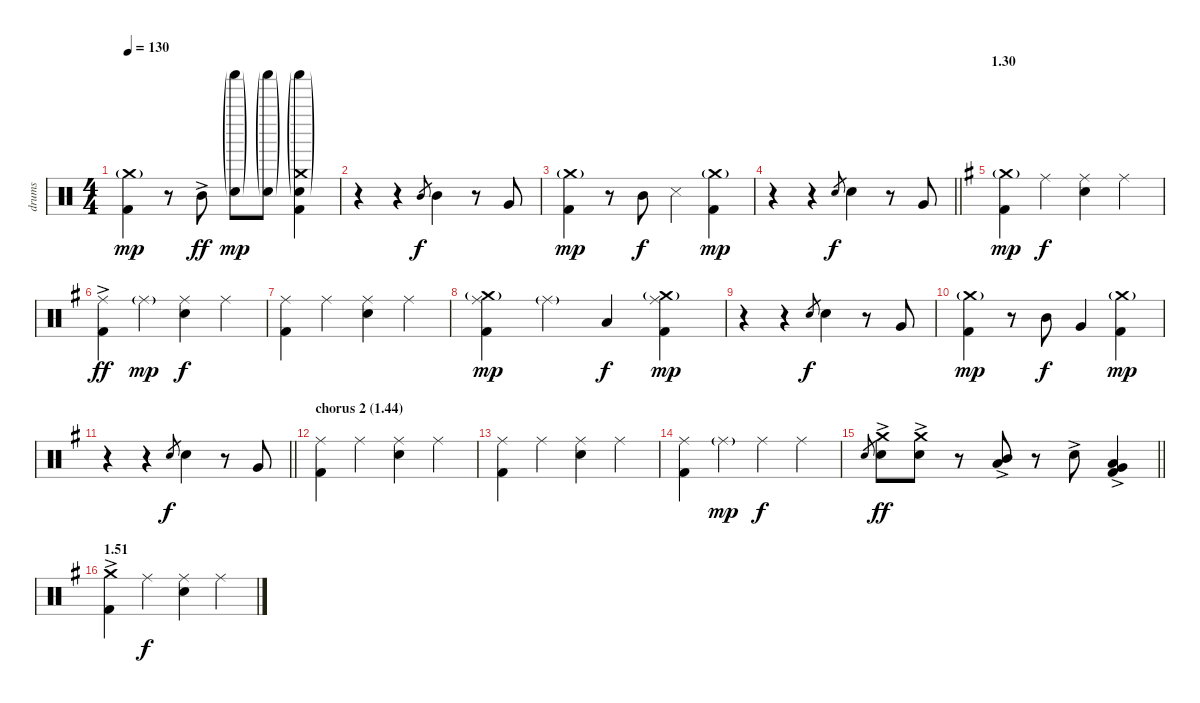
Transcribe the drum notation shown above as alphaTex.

\track ("drums" "drums") {instrument percussion}
\staff {score}
\articulation defaults
\ts (4 4)
\tempo 130
\clef neutral
\ks c
("Crash medium (hit)"{g} "Kick (hit) 2").4{dy mp} r.8 "Mid Tom (hit)"{ac}.8{dy ff} ("Shaker (hit)"{g} "Electric Snare (hit)"{g}).8{dy mp} ("Shaker (hit)"{g} "Electric Snare (hit)"{g}).8 ("Crash medium (hit)"{g} "Shaker (hit)"{g} "Electric Snare (hit)"{g} "Kick (hit) 2").4 |
r.4 r.4 "Mid Tom (hit)".8{gr dy f} "Mid Tom (hit)".4 r.8 "Very Low Tom (hit)".8 |
("Crash medium (hit)"{g} "Kick (hit) 2").4{dy mp} r.8 "Mid Tom (hit)".8{dy f} "Snare (side stick) 3".4 ("Crash medium (hit)"{g} "Kick (hit) 2").4{dy mp} |
\barLineRight lightlight
r.4 r.4 "Electric Snare (hit)".8{gr dy f} "Electric Snare (hit)".4 r.8 "Very Low Tom (hit)".8 |
\section ("" "1.30")
\ks g
("Crash medium (hit)"{g} "Kick (hit) 2").4{dy mp} "Ride (middle)".4{dy f} ("Ride (middle)" "Electric Snare (hit)").4 "Ride (middle)".4 |
("Ride (middle)"{ac} "Kick (hit) 2").4{dy ff} "Ride (middle)"{g}.4{dy mp} ("Ride (middle)" "Electric Snare (hit)").4{dy f} "Ride (middle)".4 |
("Ride (middle)" "Kick (hit) 2").4 "Ride (middle)".4 ("Ride (middle)" "Electric Snare (hit)").4 "Ride (middle)".4 |
("Ride (middle)" "Crash medium (hit)"{g} "Kick (hit) 2").4{dy mp} "Ride (middle)"{g}.4 "Low Tom (hit)".4{dy f} ("Ride (middle)" "Crash medium (hit)"{g} "Kick (hit) 2").4{dy mp} |
r.4 r.4 "Electric Snare (hit)".8{gr dy f} "Electric Snare (hit)".4 r.8 "Very Low Tom (hit)".8 |
("Crash medium (hit)"{g} "Kick (hit) 2").4{dy mp} r.8 "Mid Tom (hit)".8{dy f} "Very Low Tom (hit)".4 ("Crash medium (hit)"{g} "Kick (hit) 2").4{dy mp} |
\barLineRight lightlight
r.4 r.4 "Electric Snare (hit)".8{gr dy f} "Electric Snare (hit)".4 r.8 "Very Low Tom (hit)".8 |
\section ("" "chorus 2 (1.44)")
("Ride (middle)" "Kick (hit) 2").4 "Ride (middle)".4 ("Ride (middle)" "Electric Snare (hit)").4 "Ride (middle)".4 |
("Ride (middle)" "Kick (hit) 2").4 "Ride (middle)".4 ("Ride (middle)" "Electric Snare (hit)").4 "Ride (middle)".4 |
("Ride (middle)" "Kick (hit) 2").4 "Ride (middle)"{g}.4{dy mp} "Ride (middle)".4{dy f} "Ride (middle)".4 |
\barLineRight lightlight "Electric Snare (hit)".8{gr}
("Crash medium (hit)"{ac} "Electric Snare (hit)"{ac}).8{dy ff} ("Crash medium (hit)"{ac} "Electric Snare (hit)"{ac}).8 r.8 ("Mid Tom (hit)"{ac} "Low Tom (hit)"{ac}).8 r.8 "Electric Snare (hit)"{ac}.8 ("Low Tom (hit)"{ac} "Very Low Tom (hit)"{ac} "Kick (hit) 2"{ac}).4 |
\section ("" "1.51")
("Crash medium (hit)"{ac} "Kick (hit) 2"{ac}).4 "Ride (middle)".4{dy f} ("Ride (middle)" "Electric Snare (hit)").4 "Ride (middle)".4
